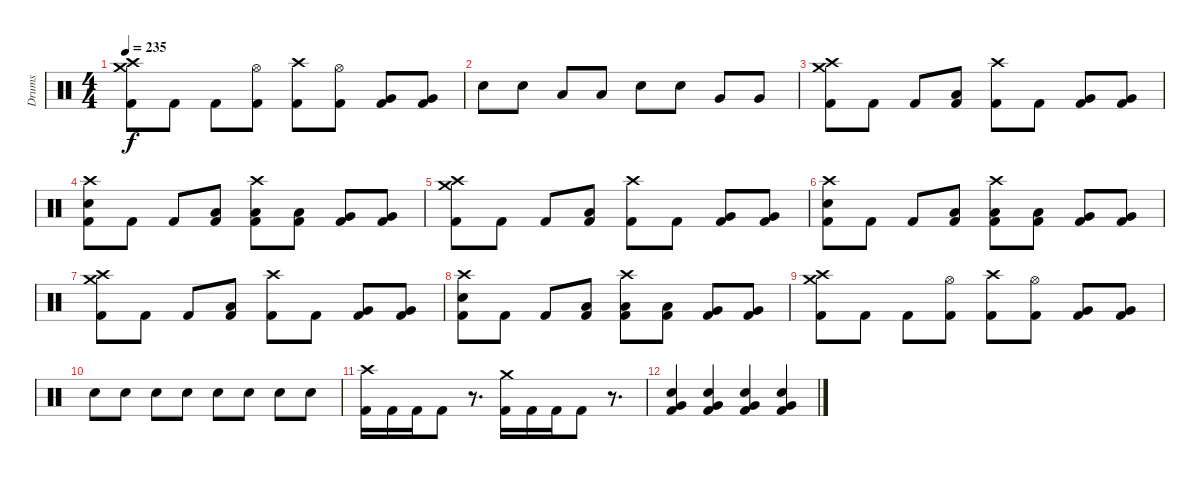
\track ("Drums" "Drums") {instrument percussion}
\staff {score}
\articulation defaults
\ts (4 4)
\tempo 235
\clef neutral
\ks c
("Crash high (hit)" "Crash medium (hit)" "Kick (hit) 2").8{dy f} "Kick (hit) 2".8 "Kick (hit) 2".8 ("Hi-Hat (open)" "Kick (hit) 2").8 ("Crash high (hit)" "Kick (hit) 2").8 ("Hi-Hat (open)" "Kick (hit) 2").8 ("Very Low Tom (hit)" "Kick (hit) 2").8 ("Very Low Tom (hit)" "Kick (hit) 2").8 |
"Electric Snare (hit)".8 "Electric Snare (hit)".8 "Low Tom (hit)".8 "Low Tom (hit)".8 "Electric Snare (hit)".8 "Electric Snare (hit)".8 "Very Low Tom (hit)".8 "Very Low Tom (hit)".8 |
("Crash high (hit)" "Crash medium (hit)" "Kick (hit) 2").8 "Kick (hit) 2".8 "Kick (hit) 2".8 ("Low Tom (hit)" "Kick (hit) 2").8 ("Crash high (hit)" "Kick (hit) 2").8 "Kick (hit) 2".8 ("Very Low Tom (hit)" "Kick (hit) 2").8 ("Very Low Tom (hit)" "Kick (hit) 2").8 |
("Crash high (hit)" "Electric Snare (hit)" "Kick (hit) 2").8 "Kick (hit) 2".8 "Kick (hit) 2".8 ("Low Tom (hit)" "Kick (hit) 2").8 ("Crash high (hit)" "Low Tom (hit)" "Kick (hit) 2").8 ("Low Tom (hit)" "Kick (hit) 2").8 ("Very Low Tom (hit)" "Kick (hit) 2").8 ("Very Low Tom (hit)" "Kick (hit) 2").8 |
("Crash high (hit)" "Crash medium (hit)" "Kick (hit) 2").8 "Kick (hit) 2".8 "Kick (hit) 2".8 ("Low Tom (hit)" "Kick (hit) 2").8 ("Crash high (hit)" "Kick (hit) 2").8 "Kick (hit) 2".8 ("Very Low Tom (hit)" "Kick (hit) 2").8 ("Very Low Tom (hit)" "Kick (hit) 2").8 |
("Crash high (hit)" "Electric Snare (hit)" "Kick (hit) 2").8 "Kick (hit) 2".8 "Kick (hit) 2".8 ("Low Tom (hit)" "Kick (hit) 2").8 ("Crash high (hit)" "Low Tom (hit)" "Kick (hit) 2").8 ("Low Tom (hit)" "Kick (hit) 2").8 ("Very Low Tom (hit)" "Kick (hit) 2").8 ("Very Low Tom (hit)" "Kick (hit) 2").8 |
("Crash high (hit)" "Crash medium (hit)" "Kick (hit) 2").8 "Kick (hit) 2".8 "Kick (hit) 2".8 ("Low Tom (hit)" "Kick (hit) 2").8 ("Crash high (hit)" "Kick (hit) 2").8 "Kick (hit) 2".8 ("Very Low Tom (hit)" "Kick (hit) 2").8 ("Very Low Tom (hit)" "Kick (hit) 2").8 |
("Crash high (hit)" "Electric Snare (hit)" "Kick (hit) 2").8 "Kick (hit) 2".8 "Kick (hit) 2".8 ("Low Tom (hit)" "Kick (hit) 2").8 ("Crash high (hit)" "Low Tom (hit)" "Kick (hit) 2").8 ("Low Tom (hit)" "Kick (hit) 2").8 ("Very Low Tom (hit)" "Kick (hit) 2").8 ("Very Low Tom (hit)" "Kick (hit) 2").8 |
("Crash high (hit)" "Crash medium (hit)" "Kick (hit) 2").8 "Kick (hit) 2".8 "Kick (hit) 2".8 ("Hi-Hat (open)" "Kick (hit) 2").8 ("Crash high (hit)" "Kick (hit) 2").8 ("Hi-Hat (open)" "Kick (hit) 2").8 ("Very Low Tom (hit)" "Kick (hit) 2").8 ("Very Low Tom (hit)" "Kick (hit) 2").8 |
"Electric Snare (hit)".8 "Electric Snare (hit)".8 "Electric Snare (hit)".8 "Electric Snare (hit)".8 "Electric Snare (hit)".8 "Electric Snare (hit)".8 "Electric Snare (hit)".8 "Electric Snare (hit)".8 |
("Crash high (hit)" "Kick (hit) 2").16 "Kick (hit) 2".16 "Kick (hit) 2".16 "Kick (hit) 2".8 r.8{d volume 0} ("Crash medium (hit)" "Kick (hit) 2").16{volume 15} "Kick (hit) 2".16 "Kick (hit) 2".16 "Kick (hit) 2".8 r.8{d volume 0} |
("Very Low Tom (hit)" "Electric Snare (hit)" "Kick (hit) 2").4{volume 15} ("Very Low Tom (hit)" "Electric Snare (hit)" "Kick (hit) 2").4 ("Very Low Tom (hit)" "Electric Snare (hit)" "Kick (hit) 2").4 ("Very Low Tom (hit)" "Electric Snare (hit)" "Kick (hit) 2").4
